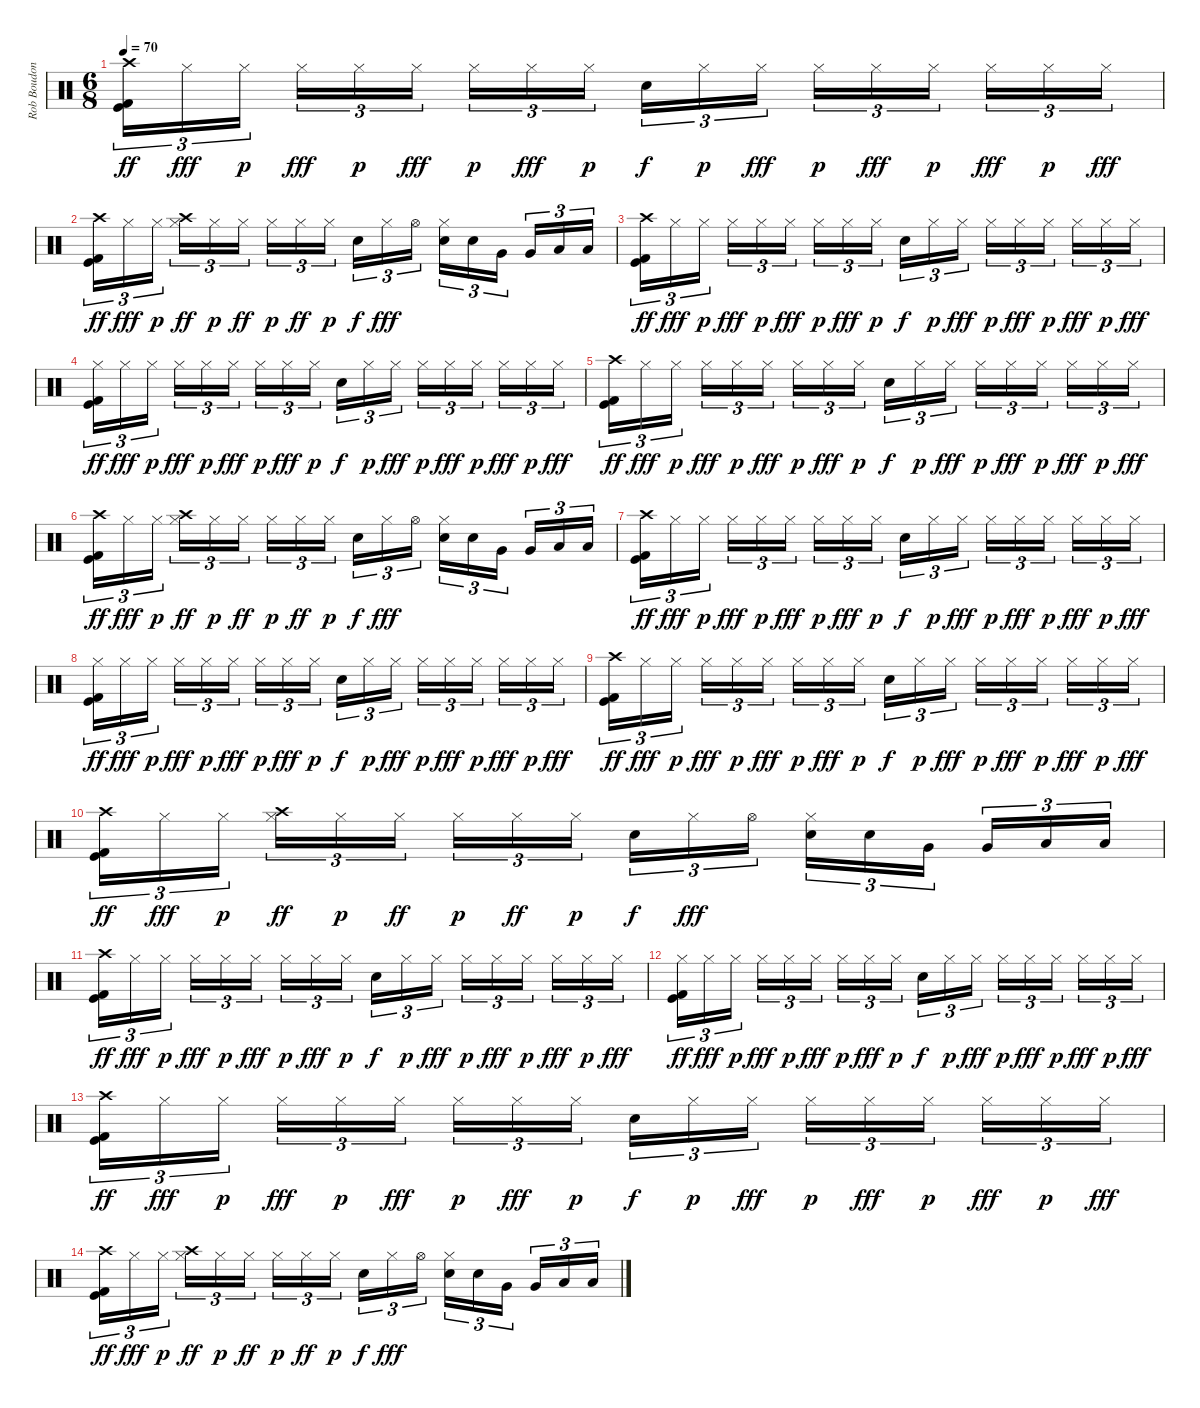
\track ("Rob Boudon [Drums]" "Rob Boudon") {instrument percussion}
\staff {score}
\articulation defaults
\ts (6 8)
\tempo 70
\clef neutral
\ks c
("Crash high (hit)" "Kick (hit) 2" "Kick (hit)").16{tu (3 2) dy ff} "Hi-Hat (closed)".16{tu (3 2) dy fff} "Hi-Hat (closed)".16{tu (3 2) dy p beam splitsecondary} "Hi-Hat (closed)".16{tu (3 2) dy fff} "Hi-Hat (closed)".16{tu (3 2) dy p} "Hi-Hat (closed)".16{tu (3 2) dy fff beam splitsecondary} "Hi-Hat (closed)".16{tu (3 2) dy p} "Hi-Hat (closed)".16{tu (3 2) dy fff} "Hi-Hat (closed)".16{tu (3 2) dy p} "Electric Snare (hit)".16{tu (3 2) dy f} "Hi-Hat (closed)".16{tu (3 2) dy p} "Hi-Hat (closed)".16{tu (3 2) dy fff beam splitsecondary} "Hi-Hat (closed)".16{tu (3 2) dy p} "Hi-Hat (closed)".16{tu (3 2) dy fff} "Hi-Hat (closed)".16{tu (3 2) dy p beam splitsecondary} "Hi-Hat (closed)".16{tu (3 2) dy fff} "Hi-Hat (closed)".16{tu (3 2) dy p} "Hi-Hat (closed)".16{tu (3 2) dy fff} |
("Crash high (hit)" "Kick (hit) 2" "Kick (hit)").16{tu (3 2) dy ff} "Hi-Hat (closed)".16{tu (3 2) dy fff} "Hi-Hat (closed)".16{tu (3 2) dy p beam splitsecondary} ("Crash high (hit)" "Hi-Hat (closed)").16{tu (3 2) dy ff} "Hi-Hat (closed)".16{tu (3 2) dy p} "Hi-Hat (closed)".16{tu (3 2) dy ff beam splitsecondary} "Hi-Hat (closed)".16{tu (3 2) dy p} "Hi-Hat (closed)".16{tu (3 2) dy ff} "Hi-Hat (closed)".16{tu (3 2) dy p} "Electric Snare (hit)".16{tu (3 2) dy f} "Hi-Hat (closed)".16{tu (3 2) dy fff} "Hi-Hat (open)".16{tu (3 2) beam splitsecondary} ("Hi-Hat (closed)" "Electric Snare (hit)").16{tu (3 2)} "Electric Snare (hit)".16{tu (3 2)} "Very Low Tom (hit)".16{tu (3 2) beam splitsecondary} "Very Low Tom (hit)".16{tu (3 2)} "Low Tom (hit)".16{tu (3 2)} "Low Tom (hit)".16{tu (3 2)} |
("Crash high (hit)" "Kick (hit) 2" "Kick (hit)").16{tu (3 2) dy ff} "Hi-Hat (closed)".16{tu (3 2) dy fff} "Hi-Hat (closed)".16{tu (3 2) dy p beam splitsecondary} "Hi-Hat (closed)".16{tu (3 2) dy fff} "Hi-Hat (closed)".16{tu (3 2) dy p} "Hi-Hat (closed)".16{tu (3 2) dy fff beam splitsecondary} "Hi-Hat (closed)".16{tu (3 2) dy p} "Hi-Hat (closed)".16{tu (3 2) dy fff} "Hi-Hat (closed)".16{tu (3 2) dy p} "Electric Snare (hit)".16{tu (3 2) dy f} "Hi-Hat (closed)".16{tu (3 2) dy p} "Hi-Hat (closed)".16{tu (3 2) dy fff beam splitsecondary} "Hi-Hat (closed)".16{tu (3 2) dy p} "Hi-Hat (closed)".16{tu (3 2) dy fff} "Hi-Hat (closed)".16{tu (3 2) dy p beam splitsecondary} "Hi-Hat (closed)".16{tu (3 2) dy fff} "Hi-Hat (closed)".16{tu (3 2) dy p} "Hi-Hat (closed)".16{tu (3 2) dy fff} |
("Hi-Hat (closed)" "Kick (hit) 2" "Kick (hit)").16{tu (3 2) dy ff} "Hi-Hat (closed)".16{tu (3 2) dy fff} "Hi-Hat (closed)".16{tu (3 2) dy p beam splitsecondary} "Hi-Hat (closed)".16{tu (3 2) dy fff} "Hi-Hat (closed)".16{tu (3 2) dy p} "Hi-Hat (closed)".16{tu (3 2) dy fff beam splitsecondary} "Hi-Hat (closed)".16{tu (3 2) dy p} "Hi-Hat (closed)".16{tu (3 2) dy fff} "Hi-Hat (closed)".16{tu (3 2) dy p} "Electric Snare (hit)".16{tu (3 2) dy f} "Hi-Hat (closed)".16{tu (3 2) dy p} "Hi-Hat (closed)".16{tu (3 2) dy fff beam splitsecondary} "Hi-Hat (closed)".16{tu (3 2) dy p} "Hi-Hat (closed)".16{tu (3 2) dy fff} "Hi-Hat (closed)".16{tu (3 2) dy p beam splitsecondary} "Hi-Hat (closed)".16{tu (3 2) dy fff} "Hi-Hat (closed)".16{tu (3 2) dy p} "Hi-Hat (closed)".16{tu (3 2) dy fff} |
("Crash high (hit)" "Kick (hit) 2" "Kick (hit)").16{tu (3 2) dy ff} "Hi-Hat (closed)".16{tu (3 2) dy fff} "Hi-Hat (closed)".16{tu (3 2) dy p beam splitsecondary} "Hi-Hat (closed)".16{tu (3 2) dy fff} "Hi-Hat (closed)".16{tu (3 2) dy p} "Hi-Hat (closed)".16{tu (3 2) dy fff beam splitsecondary} "Hi-Hat (closed)".16{tu (3 2) dy p} "Hi-Hat (closed)".16{tu (3 2) dy fff} "Hi-Hat (closed)".16{tu (3 2) dy p} "Electric Snare (hit)".16{tu (3 2) dy f} "Hi-Hat (closed)".16{tu (3 2) dy p} "Hi-Hat (closed)".16{tu (3 2) dy fff beam splitsecondary} "Hi-Hat (closed)".16{tu (3 2) dy p} "Hi-Hat (closed)".16{tu (3 2) dy fff} "Hi-Hat (closed)".16{tu (3 2) dy p beam splitsecondary} "Hi-Hat (closed)".16{tu (3 2) dy fff} "Hi-Hat (closed)".16{tu (3 2) dy p} "Hi-Hat (closed)".16{tu (3 2) dy fff} |
("Crash high (hit)" "Kick (hit) 2" "Kick (hit)").16{tu (3 2) dy ff} "Hi-Hat (closed)".16{tu (3 2) dy fff} "Hi-Hat (closed)".16{tu (3 2) dy p beam splitsecondary} ("Crash high (hit)" "Hi-Hat (closed)").16{tu (3 2) dy ff} "Hi-Hat (closed)".16{tu (3 2) dy p} "Hi-Hat (closed)".16{tu (3 2) dy ff beam splitsecondary} "Hi-Hat (closed)".16{tu (3 2) dy p} "Hi-Hat (closed)".16{tu (3 2) dy ff} "Hi-Hat (closed)".16{tu (3 2) dy p} "Electric Snare (hit)".16{tu (3 2) dy f} "Hi-Hat (closed)".16{tu (3 2) dy fff} "Hi-Hat (open)".16{tu (3 2) beam splitsecondary} ("Hi-Hat (closed)" "Electric Snare (hit)").16{tu (3 2)} "Electric Snare (hit)".16{tu (3 2)} "Very Low Tom (hit)".16{tu (3 2) beam splitsecondary} "Very Low Tom (hit)".16{tu (3 2)} "Low Tom (hit)".16{tu (3 2)} "Low Tom (hit)".16{tu (3 2)} |
("Crash high (hit)" "Kick (hit) 2" "Kick (hit)").16{tu (3 2) dy ff} "Hi-Hat (closed)".16{tu (3 2) dy fff} "Hi-Hat (closed)".16{tu (3 2) dy p beam splitsecondary} "Hi-Hat (closed)".16{tu (3 2) dy fff} "Hi-Hat (closed)".16{tu (3 2) dy p} "Hi-Hat (closed)".16{tu (3 2) dy fff beam splitsecondary} "Hi-Hat (closed)".16{tu (3 2) dy p} "Hi-Hat (closed)".16{tu (3 2) dy fff} "Hi-Hat (closed)".16{tu (3 2) dy p} "Electric Snare (hit)".16{tu (3 2) dy f} "Hi-Hat (closed)".16{tu (3 2) dy p} "Hi-Hat (closed)".16{tu (3 2) dy fff beam splitsecondary} "Hi-Hat (closed)".16{tu (3 2) dy p} "Hi-Hat (closed)".16{tu (3 2) dy fff} "Hi-Hat (closed)".16{tu (3 2) dy p beam splitsecondary} "Hi-Hat (closed)".16{tu (3 2) dy fff} "Hi-Hat (closed)".16{tu (3 2) dy p} "Hi-Hat (closed)".16{tu (3 2) dy fff} |
("Hi-Hat (closed)" "Kick (hit) 2" "Kick (hit)").16{tu (3 2) dy ff} "Hi-Hat (closed)".16{tu (3 2) dy fff} "Hi-Hat (closed)".16{tu (3 2) dy p beam splitsecondary} "Hi-Hat (closed)".16{tu (3 2) dy fff} "Hi-Hat (closed)".16{tu (3 2) dy p} "Hi-Hat (closed)".16{tu (3 2) dy fff beam splitsecondary} "Hi-Hat (closed)".16{tu (3 2) dy p} "Hi-Hat (closed)".16{tu (3 2) dy fff} "Hi-Hat (closed)".16{tu (3 2) dy p} "Electric Snare (hit)".16{tu (3 2) dy f} "Hi-Hat (closed)".16{tu (3 2) dy p} "Hi-Hat (closed)".16{tu (3 2) dy fff beam splitsecondary} "Hi-Hat (closed)".16{tu (3 2) dy p} "Hi-Hat (closed)".16{tu (3 2) dy fff} "Hi-Hat (closed)".16{tu (3 2) dy p beam splitsecondary} "Hi-Hat (closed)".16{tu (3 2) dy fff} "Hi-Hat (closed)".16{tu (3 2) dy p} "Hi-Hat (closed)".16{tu (3 2) dy fff} |
("Crash high (hit)" "Kick (hit) 2" "Kick (hit)").16{tu (3 2) dy ff} "Hi-Hat (closed)".16{tu (3 2) dy fff} "Hi-Hat (closed)".16{tu (3 2) dy p beam splitsecondary} "Hi-Hat (closed)".16{tu (3 2) dy fff} "Hi-Hat (closed)".16{tu (3 2) dy p} "Hi-Hat (closed)".16{tu (3 2) dy fff beam splitsecondary} "Hi-Hat (closed)".16{tu (3 2) dy p} "Hi-Hat (closed)".16{tu (3 2) dy fff} "Hi-Hat (closed)".16{tu (3 2) dy p} "Electric Snare (hit)".16{tu (3 2) dy f} "Hi-Hat (closed)".16{tu (3 2) dy p} "Hi-Hat (closed)".16{tu (3 2) dy fff beam splitsecondary} "Hi-Hat (closed)".16{tu (3 2) dy p} "Hi-Hat (closed)".16{tu (3 2) dy fff} "Hi-Hat (closed)".16{tu (3 2) dy p beam splitsecondary} "Hi-Hat (closed)".16{tu (3 2) dy fff} "Hi-Hat (closed)".16{tu (3 2) dy p} "Hi-Hat (closed)".16{tu (3 2) dy fff} |
("Crash high (hit)" "Kick (hit) 2" "Kick (hit)").16{tu (3 2) dy ff} "Hi-Hat (closed)".16{tu (3 2) dy fff} "Hi-Hat (closed)".16{tu (3 2) dy p beam splitsecondary} ("Crash high (hit)" "Hi-Hat (closed)").16{tu (3 2) dy ff} "Hi-Hat (closed)".16{tu (3 2) dy p} "Hi-Hat (closed)".16{tu (3 2) dy ff beam splitsecondary} "Hi-Hat (closed)".16{tu (3 2) dy p} "Hi-Hat (closed)".16{tu (3 2) dy ff} "Hi-Hat (closed)".16{tu (3 2) dy p} "Electric Snare (hit)".16{tu (3 2) dy f} "Hi-Hat (closed)".16{tu (3 2) dy fff} "Hi-Hat (open)".16{tu (3 2) beam splitsecondary} ("Hi-Hat (closed)" "Electric Snare (hit)").16{tu (3 2)} "Electric Snare (hit)".16{tu (3 2)} "Very Low Tom (hit)".16{tu (3 2) beam splitsecondary} "Very Low Tom (hit)".16{tu (3 2)} "Low Tom (hit)".16{tu (3 2)} "Low Tom (hit)".16{tu (3 2)} |
("Crash high (hit)" "Kick (hit) 2" "Kick (hit)").16{tu (3 2) dy ff} "Hi-Hat (closed)".16{tu (3 2) dy fff} "Hi-Hat (closed)".16{tu (3 2) dy p beam splitsecondary} "Hi-Hat (closed)".16{tu (3 2) dy fff} "Hi-Hat (closed)".16{tu (3 2) dy p} "Hi-Hat (closed)".16{tu (3 2) dy fff beam splitsecondary} "Hi-Hat (closed)".16{tu (3 2) dy p} "Hi-Hat (closed)".16{tu (3 2) dy fff} "Hi-Hat (closed)".16{tu (3 2) dy p} "Electric Snare (hit)".16{tu (3 2) dy f} "Hi-Hat (closed)".16{tu (3 2) dy p} "Hi-Hat (closed)".16{tu (3 2) dy fff beam splitsecondary} "Hi-Hat (closed)".16{tu (3 2) dy p} "Hi-Hat (closed)".16{tu (3 2) dy fff} "Hi-Hat (closed)".16{tu (3 2) dy p beam splitsecondary} "Hi-Hat (closed)".16{tu (3 2) dy fff} "Hi-Hat (closed)".16{tu (3 2) dy p} "Hi-Hat (closed)".16{tu (3 2) dy fff} |
("Hi-Hat (closed)" "Kick (hit) 2" "Kick (hit)").16{tu (3 2) dy ff} "Hi-Hat (closed)".16{tu (3 2) dy fff} "Hi-Hat (closed)".16{tu (3 2) dy p beam splitsecondary} "Hi-Hat (closed)".16{tu (3 2) dy fff} "Hi-Hat (closed)".16{tu (3 2) dy p} "Hi-Hat (closed)".16{tu (3 2) dy fff beam splitsecondary} "Hi-Hat (closed)".16{tu (3 2) dy p} "Hi-Hat (closed)".16{tu (3 2) dy fff} "Hi-Hat (closed)".16{tu (3 2) dy p} "Electric Snare (hit)".16{tu (3 2) dy f} "Hi-Hat (closed)".16{tu (3 2) dy p} "Hi-Hat (closed)".16{tu (3 2) dy fff beam splitsecondary} "Hi-Hat (closed)".16{tu (3 2) dy p} "Hi-Hat (closed)".16{tu (3 2) dy fff} "Hi-Hat (closed)".16{tu (3 2) dy p beam splitsecondary} "Hi-Hat (closed)".16{tu (3 2) dy fff} "Hi-Hat (closed)".16{tu (3 2) dy p} "Hi-Hat (closed)".16{tu (3 2) dy fff} |
("Crash high (hit)" "Kick (hit) 2" "Kick (hit)").16{tu (3 2) dy ff} "Hi-Hat (closed)".16{tu (3 2) dy fff} "Hi-Hat (closed)".16{tu (3 2) dy p beam splitsecondary} "Hi-Hat (closed)".16{tu (3 2) dy fff} "Hi-Hat (closed)".16{tu (3 2) dy p} "Hi-Hat (closed)".16{tu (3 2) dy fff beam splitsecondary} "Hi-Hat (closed)".16{tu (3 2) dy p} "Hi-Hat (closed)".16{tu (3 2) dy fff} "Hi-Hat (closed)".16{tu (3 2) dy p} "Electric Snare (hit)".16{tu (3 2) dy f} "Hi-Hat (closed)".16{tu (3 2) dy p} "Hi-Hat (closed)".16{tu (3 2) dy fff beam splitsecondary} "Hi-Hat (closed)".16{tu (3 2) dy p} "Hi-Hat (closed)".16{tu (3 2) dy fff} "Hi-Hat (closed)".16{tu (3 2) dy p beam splitsecondary} "Hi-Hat (closed)".16{tu (3 2) dy fff} "Hi-Hat (closed)".16{tu (3 2) dy p} "Hi-Hat (closed)".16{tu (3 2) dy fff} |
("Crash high (hit)" "Kick (hit) 2" "Kick (hit)").16{tu (3 2) dy ff} "Hi-Hat (closed)".16{tu (3 2) dy fff} "Hi-Hat (closed)".16{tu (3 2) dy p beam splitsecondary} ("Crash high (hit)" "Hi-Hat (closed)").16{tu (3 2) dy ff} "Hi-Hat (closed)".16{tu (3 2) dy p} "Hi-Hat (closed)".16{tu (3 2) dy ff beam splitsecondary} "Hi-Hat (closed)".16{tu (3 2) dy p} "Hi-Hat (closed)".16{tu (3 2) dy ff} "Hi-Hat (closed)".16{tu (3 2) dy p} "Electric Snare (hit)".16{tu (3 2) dy f} "Hi-Hat (closed)".16{tu (3 2) dy fff} "Hi-Hat (open)".16{tu (3 2) beam splitsecondary} ("Hi-Hat (closed)" "Electric Snare (hit)").16{tu (3 2)} "Electric Snare (hit)".16{tu (3 2)} "Very Low Tom (hit)".16{tu (3 2) beam splitsecondary} "Very Low Tom (hit)".16{tu (3 2)} "Low Tom (hit)".16{tu (3 2)} "Low Tom (hit)".16{tu (3 2)}
